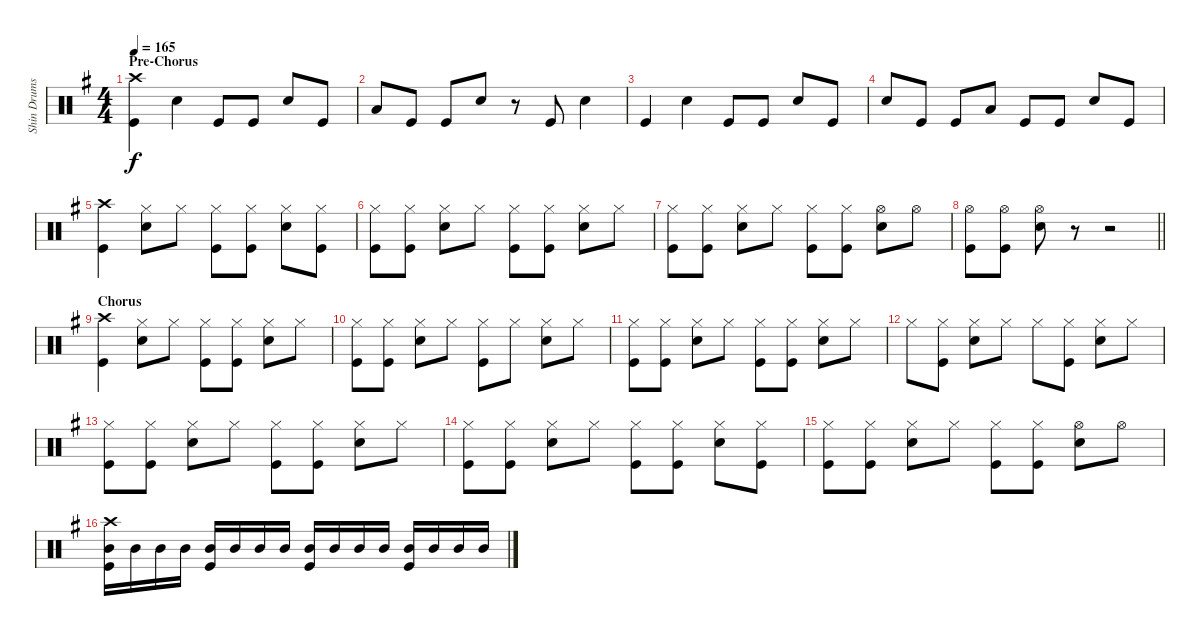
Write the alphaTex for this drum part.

\track ("Shin Drums" "Shin Drums") {instrument percussion}
\staff {score}
\articulation defaults
\ts (4 4)
\section ("" "Pre-Chorus")
\tempo 165
\clef neutral
\ks g
("Crash high (hit)" "Kick (hit)").4{dy f} "Snare (hit) 2".4 "Kick (hit)".8 "Kick (hit)".8 "Snare (hit) 2".8 "Kick (hit)".8 |
"Low Tom (hit)".8 "Kick (hit)".8 "Kick (hit)".8 "Snare (hit) 2".8 r.8 "Kick (hit)".8 "Snare (hit) 2".4 |
"Kick (hit)".4 "Snare (hit) 2".4 "Kick (hit)".8 "Kick (hit)".8 "Snare (hit) 2".8 "Kick (hit)".8 |
"Snare (hit) 2".8 "Kick (hit)".8 "Kick (hit)".8 "Low Tom (hit)".8 "Kick (hit)".8 "Kick (hit)".8 "Snare (hit) 2".8 "Kick (hit)".8 |
("Crash high (hit)" "Kick (hit)").4 ("Hi-Hat (closed)" "Snare (hit) 2").8 "Hi-Hat (closed)".8 ("Hi-Hat (closed)" "Kick (hit)").8 ("Hi-Hat (closed)" "Kick (hit)").8 ("Hi-Hat (closed)" "Snare (hit) 2").8 ("Hi-Hat (closed)" "Kick (hit)").8 |
("Hi-Hat (closed)" "Kick (hit)").8 ("Hi-Hat (closed)" "Kick (hit)").8 ("Hi-Hat (closed)" "Snare (hit) 2").8 "Hi-Hat (closed)".8 ("Hi-Hat (closed)" "Kick (hit)").8 ("Hi-Hat (closed)" "Kick (hit)").8 ("Hi-Hat (closed)" "Snare (hit) 2").8 "Hi-Hat (closed)".8 |
("Hi-Hat (closed)" "Kick (hit)").8 ("Hi-Hat (closed)" "Kick (hit)").8 ("Hi-Hat (closed)" "Snare (hit) 2").8 "Hi-Hat (closed)".8 ("Hi-Hat (closed)" "Kick (hit)").8 ("Hi-Hat (closed)" "Kick (hit)").8 ("Hi-Hat (open)" "Snare (hit) 2").8 "Hi-Hat (open)".8 |
\barLineRight lightlight
("Hi-Hat (open)" "Kick (hit)").8 ("Hi-Hat (open)" "Kick (hit)").8 ("Hi-Hat (open)" "Snare (hit) 2").8 r.8 r.2 |
\section ("" "Chorus")
("Crash high (hit)" "Kick (hit)").4 ("Hi-Hat (closed)" "Snare (hit) 2").8 "Hi-Hat (closed)".8 ("Hi-Hat (closed)" "Kick (hit)").8 ("Hi-Hat (closed)" "Kick (hit)").8 ("Hi-Hat (closed)" "Snare (hit) 2").8 "Hi-Hat (closed)".8 |
("Hi-Hat (closed)" "Kick (hit)").8 ("Hi-Hat (closed)" "Kick (hit)").8 ("Hi-Hat (closed)" "Snare (hit) 2").8 "Hi-Hat (closed)".8 ("Hi-Hat (closed)" "Kick (hit)").8 "Hi-Hat (closed)".8 ("Hi-Hat (closed)" "Snare (hit) 2").8 "Hi-Hat (closed)".8 |
("Hi-Hat (closed)" "Kick (hit)").8 ("Hi-Hat (closed)" "Kick (hit)").8 ("Hi-Hat (closed)" "Snare (hit) 2").8 "Hi-Hat (closed)".8 ("Hi-Hat (closed)" "Kick (hit)").8 ("Hi-Hat (closed)" "Kick (hit)").8 ("Hi-Hat (closed)" "Snare (hit) 2").8 "Hi-Hat (closed)".8 |
"Hi-Hat (closed)".8 ("Hi-Hat (closed)" "Kick (hit)").8 ("Hi-Hat (closed)" "Snare (hit) 2").8 "Hi-Hat (closed)".8 "Hi-Hat (closed)".8 ("Hi-Hat (closed)" "Kick (hit)").8 ("Hi-Hat (closed)" "Snare (hit) 2").8 "Hi-Hat (closed)".8 |
("Hi-Hat (closed)" "Kick (hit)").8 ("Hi-Hat (closed)" "Kick (hit)").8 ("Hi-Hat (closed)" "Snare (hit) 2").8 "Hi-Hat (closed)".8 ("Hi-Hat (closed)" "Kick (hit)").8 ("Hi-Hat (closed)" "Kick (hit)").8 ("Hi-Hat (closed)" "Snare (hit) 2").8 "Hi-Hat (closed)".8 |
("Hi-Hat (closed)" "Kick (hit)").8 ("Hi-Hat (closed)" "Kick (hit)").8 ("Hi-Hat (closed)" "Snare (hit) 2").8 "Hi-Hat (closed)".8 ("Hi-Hat (closed)" "Kick (hit)").8 ("Hi-Hat (closed)" "Kick (hit)").8 ("Hi-Hat (closed)" "Snare (hit) 2").8 ("Hi-Hat (closed)" "Kick (hit)").8 |
("Hi-Hat (closed)" "Kick (hit)").8 ("Hi-Hat (closed)" "Kick (hit)").8 ("Hi-Hat (closed)" "Snare (hit) 2").8 "Hi-Hat (closed)".8 ("Hi-Hat (closed)" "Kick (hit)").8 ("Hi-Hat (closed)" "Kick (hit)").8 ("Hi-Hat (open)" "Snare (hit) 2").8 "Hi-Hat (open)".8 |
("Crash high (hit)" "Mid Tom (hit)" "Kick (hit)").16 "Mid Tom (hit)".16 "Mid Tom (hit)".16 "Mid Tom (hit)".16 ("Mid Tom (hit)" "Kick (hit)").16 "Mid Tom (hit)".16 "Mid Tom (hit)".16 "Mid Tom (hit)".16 ("Mid Tom (hit)" "Kick (hit)").16 "Mid Tom (hit)".16 "Mid Tom (hit)".16 "Mid Tom (hit)".16 ("Mid Tom (hit)" "Kick (hit)").16 "Mid Tom (hit)".16 "Mid Tom (hit)".16 "Mid Tom (hit)".16
